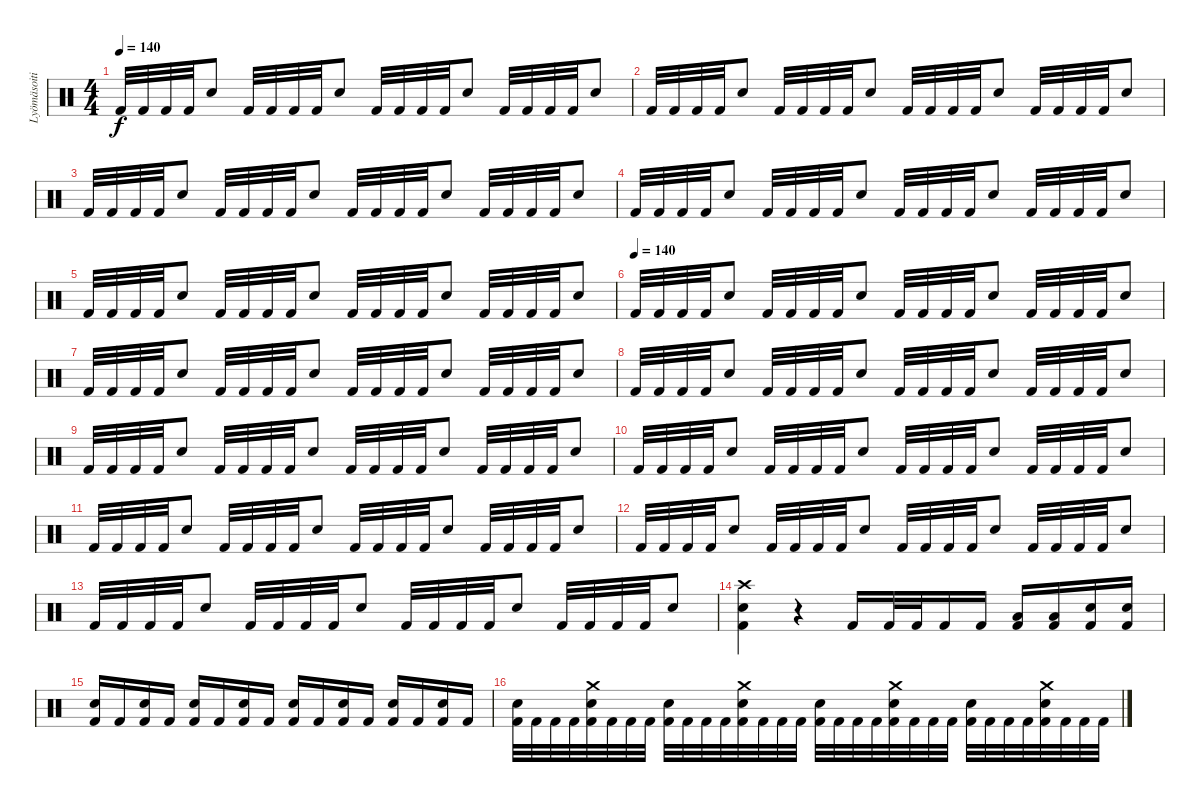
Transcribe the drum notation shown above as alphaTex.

\track ("Lyömäsoitin" "Lyömäsoiti") {instrument percussion}
\staff {score}
\articulation defaults
\ts (4 4)
\tempo 140
\clef neutral
\ks c "Kick (hit) 2".32{dy f} "Kick (hit) 2".32 "Kick (hit) 2".32 "Kick (hit) 2".32 "Electric Snare (hit)".8 "Kick (hit) 2".32 "Kick (hit) 2".32 "Kick (hit) 2".32 "Kick (hit) 2".32 "Electric Snare (hit)".8 "Kick (hit) 2".32 "Kick (hit) 2".32 "Kick (hit) 2".32 "Kick (hit) 2".32 "Electric Snare (hit)".8 "Kick (hit) 2".32 "Kick (hit) 2".32 "Kick (hit) 2".32 "Kick (hit) 2".32 "Electric Snare (hit)".8
|
"Kick (hit) 2".32 "Kick (hit) 2".32 "Kick (hit) 2".32 "Kick (hit) 2".32 "Electric Snare (hit)".8 "Kick (hit) 2".32 "Kick (hit) 2".32 "Kick (hit) 2".32 "Kick (hit) 2".32 "Electric Snare (hit)".8 "Kick (hit) 2".32 "Kick (hit) 2".32 "Kick (hit) 2".32 "Kick (hit) 2".32 "Electric Snare (hit)".8 "Kick (hit) 2".32 "Kick (hit) 2".32 "Kick (hit) 2".32 "Kick (hit) 2".32 "Electric Snare (hit)".8 |
"Kick (hit) 2".32 "Kick (hit) 2".32 "Kick (hit) 2".32 "Kick (hit) 2".32 "Electric Snare (hit)".8 "Kick (hit) 2".32 "Kick (hit) 2".32 "Kick (hit) 2".32 "Kick (hit) 2".32 "Electric Snare (hit)".8 "Kick (hit) 2".32 "Kick (hit) 2".32 "Kick (hit) 2".32 "Kick (hit) 2".32 "Electric Snare (hit)".8 "Kick (hit) 2".32 "Kick (hit) 2".32 "Kick (hit) 2".32 "Kick (hit) 2".32 "Electric Snare (hit)".8 |
"Kick (hit) 2".32 "Kick (hit) 2".32 "Kick (hit) 2".32 "Kick (hit) 2".32 "Electric Snare (hit)".8 "Kick (hit) 2".32 "Kick (hit) 2".32 "Kick (hit) 2".32 "Kick (hit) 2".32 "Electric Snare (hit)".8 "Kick (hit) 2".32 "Kick (hit) 2".32 "Kick (hit) 2".32 "Kick (hit) 2".32 "Electric Snare (hit)".8 "Kick (hit) 2".32 "Kick (hit) 2".32 "Kick (hit) 2".32 "Kick (hit) 2".32 "Electric Snare (hit)".8 |
"Kick (hit) 2".32 "Kick (hit) 2".32 "Kick (hit) 2".32 "Kick (hit) 2".32 "Electric Snare (hit)".8 "Kick (hit) 2".32 "Kick (hit) 2".32 "Kick (hit) 2".32 "Kick (hit) 2".32 "Electric Snare (hit)".8 "Kick (hit) 2".32 "Kick (hit) 2".32 "Kick (hit) 2".32 "Kick (hit) 2".32 "Electric Snare (hit)".8 "Kick (hit) 2".32 "Kick (hit) 2".32 "Kick (hit) 2".32 "Kick (hit) 2".32 "Electric Snare (hit)".8 |
\tempo (140)
"Kick (hit) 2".32 "Kick (hit) 2".32 "Kick (hit) 2".32 "Kick (hit) 2".32 "Electric Snare (hit)".8 "Kick (hit) 2".32 "Kick (hit) 2".32 "Kick (hit) 2".32 "Kick (hit) 2".32 "Electric Snare (hit)".8 "Kick (hit) 2".32 "Kick (hit) 2".32 "Kick (hit) 2".32 "Kick (hit) 2".32 "Electric Snare (hit)".8 "Kick (hit) 2".32 "Kick (hit) 2".32 "Kick (hit) 2".32 "Kick (hit) 2".32 "Electric Snare (hit)".8 |
"Kick (hit) 2".32 "Kick (hit) 2".32 "Kick (hit) 2".32 "Kick (hit) 2".32 "Electric Snare (hit)".8 "Kick (hit) 2".32 "Kick (hit) 2".32 "Kick (hit) 2".32 "Kick (hit) 2".32 "Electric Snare (hit)".8 "Kick (hit) 2".32 "Kick (hit) 2".32 "Kick (hit) 2".32 "Kick (hit) 2".32 "Electric Snare (hit)".8 "Kick (hit) 2".32 "Kick (hit) 2".32 "Kick (hit) 2".32 "Kick (hit) 2".32 "Electric Snare (hit)".8 |
"Kick (hit) 2".32 "Kick (hit) 2".32 "Kick (hit) 2".32 "Kick (hit) 2".32 "Electric Snare (hit)".8 "Kick (hit) 2".32 "Kick (hit) 2".32 "Kick (hit) 2".32 "Kick (hit) 2".32 "Electric Snare (hit)".8 "Kick (hit) 2".32 "Kick (hit) 2".32 "Kick (hit) 2".32 "Kick (hit) 2".32 "Electric Snare (hit)".8 "Kick (hit) 2".32 "Kick (hit) 2".32 "Kick (hit) 2".32 "Kick (hit) 2".32 "Electric Snare (hit)".8 |
"Kick (hit) 2".32 "Kick (hit) 2".32 "Kick (hit) 2".32 "Kick (hit) 2".32 "Electric Snare (hit)".8 "Kick (hit) 2".32 "Kick (hit) 2".32 "Kick (hit) 2".32 "Kick (hit) 2".32 "Electric Snare (hit)".8 "Kick (hit) 2".32 "Kick (hit) 2".32 "Kick (hit) 2".32 "Kick (hit) 2".32 "Electric Snare (hit)".8 "Kick (hit) 2".32 "Kick (hit) 2".32 "Kick (hit) 2".32 "Kick (hit) 2".32 "Electric Snare (hit)".8 |
"Kick (hit) 2".32 "Kick (hit) 2".32 "Kick (hit) 2".32 "Kick (hit) 2".32 "Electric Snare (hit)".8 "Kick (hit) 2".32 "Kick (hit) 2".32 "Kick (hit) 2".32 "Kick (hit) 2".32 "Electric Snare (hit)".8 "Kick (hit) 2".32 "Kick (hit) 2".32 "Kick (hit) 2".32 "Kick (hit) 2".32 "Electric Snare (hit)".8 "Kick (hit) 2".32 "Kick (hit) 2".32 "Kick (hit) 2".32 "Kick (hit) 2".32 "Electric Snare (hit)".8 |
"Kick (hit) 2".32 "Kick (hit) 2".32 "Kick (hit) 2".32 "Kick (hit) 2".32 "Electric Snare (hit)".8 "Kick (hit) 2".32 "Kick (hit) 2".32 "Kick (hit) 2".32 "Kick (hit) 2".32 "Electric Snare (hit)".8 "Kick (hit) 2".32 "Kick (hit) 2".32 "Kick (hit) 2".32 "Kick (hit) 2".32 "Electric Snare (hit)".8 "Kick (hit) 2".32 "Kick (hit) 2".32 "Kick (hit) 2".32 "Kick (hit) 2".32 "Electric Snare (hit)".8 |
"Kick (hit) 2".32 "Kick (hit) 2".32 "Kick (hit) 2".32 "Kick (hit) 2".32 "Electric Snare (hit)".8 "Kick (hit) 2".32 "Kick (hit) 2".32 "Kick (hit) 2".32 "Kick (hit) 2".32 "Electric Snare (hit)".8 "Kick (hit) 2".32 "Kick (hit) 2".32 "Kick (hit) 2".32 "Kick (hit) 2".32 "Electric Snare (hit)".8 "Kick (hit) 2".32 "Kick (hit) 2".32 "Kick (hit) 2".32 "Kick (hit) 2".32 "Electric Snare (hit)".8 |
"Kick (hit) 2".32 "Kick (hit) 2".32 "Kick (hit) 2".32 "Kick (hit) 2".32 "Electric Snare (hit)".8 "Kick (hit) 2".32 "Kick (hit) 2".32 "Kick (hit) 2".32 "Kick (hit) 2".32 "Electric Snare (hit)".8 "Kick (hit) 2".32 "Kick (hit) 2".32 "Kick (hit) 2".32 "Kick (hit) 2".32 "Electric Snare (hit)".8 "Kick (hit) 2".32 "Kick (hit) 2".32 "Kick (hit) 2".32 "Kick (hit) 2".32 "Electric Snare (hit)".8 |
("Crash high (hit)" "Electric Snare (hit)" "Kick (hit) 2").4 r.4 "Kick (hit) 2".16 "Kick (hit) 2".32 "Kick (hit) 2".32 "Kick (hit) 2".16 "Kick (hit) 2".16 ("Low Floor Tom (hit)" "Kick (hit) 2").16 ("Low Floor Tom (hit)" "Kick (hit) 2").16 ("Electric Snare (hit)" "Kick (hit) 2").16 ("Electric Snare (hit)" "Kick (hit) 2").16 |
("Electric Snare (hit)" "Kick (hit) 2").16 "Kick (hit) 2".16 ("Electric Snare (hit)" "Kick (hit) 2").16 "Kick (hit) 2".16 ("Electric Snare (hit)" "Kick (hit) 2").16 "Kick (hit) 2".16 ("Electric Snare (hit)" "Kick (hit) 2").16 "Kick (hit) 2".16 ("Electric Snare (hit)" "Kick (hit) 2").16 "Kick (hit) 2".16 ("Electric Snare (hit)" "Kick (hit) 2").16 "Kick (hit) 2".16 ("Electric Snare (hit)" "Kick (hit) 2").16 "Kick (hit) 2".16 ("Electric Snare (hit)" "Kick (hit) 2").16 "Kick (hit) 2".16 |
("Electric Snare (hit)" "Kick (hit) 2").32 "Kick (hit) 2".32 "Kick (hit) 2".32 "Kick (hit) 2".32 ("Crash medium (hit)" "Electric Snare (hit)" "Kick (hit) 2").32 "Kick (hit) 2".32 "Kick (hit) 2".32 "Kick (hit) 2".32 ("Electric Snare (hit)" "Kick (hit) 2").32 "Kick (hit) 2".32 "Kick (hit) 2".32 "Kick (hit) 2".32 ("Crash medium (hit)" "Electric Snare (hit)" "Kick (hit) 2").32 "Kick (hit) 2".32 "Kick (hit) 2".32 "Kick (hit) 2".32 ("Electric Snare (hit)" "Kick (hit) 2").32 "Kick (hit) 2".32 "Kick (hit) 2".32 "Kick (hit) 2".32 ("Crash medium (hit)" "Electric Snare (hit)" "Kick (hit) 2").32 "Kick (hit) 2".32 "Kick (hit) 2".32 "Kick (hit) 2".32 ("Electric Snare (hit)" "Kick (hit) 2").32 "Kick (hit) 2".32 "Kick (hit) 2".32 "Kick (hit) 2".32 ("Crash medium (hit)" "Electric Snare (hit)" "Kick (hit) 2").32 "Kick (hit) 2".32 "Kick (hit) 2".32 "Kick (hit) 2".32
